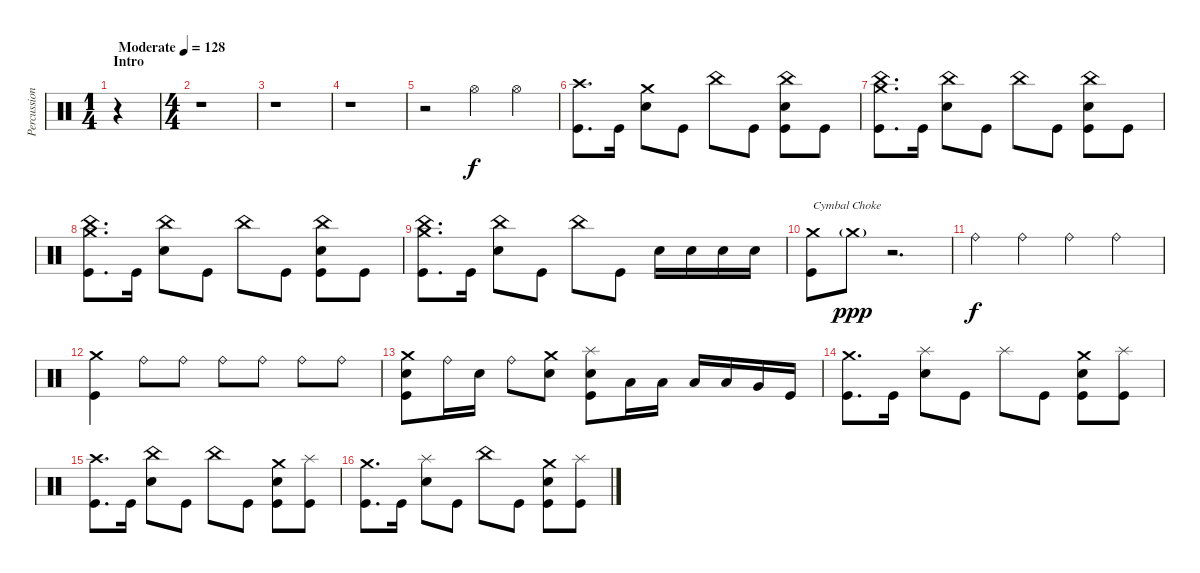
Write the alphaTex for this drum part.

\track ("Percussion" "Percussion") {instrument percussion}
\staff {score}
\articulation defaults
\ts (1 4)
\section ("" "Intro")
\tempo (128 "Moderate")
\clef neutral
\ks c
r.4{dy f} |
\ts (4 4)
r.1 |
r.1 |
r.1 |
r.2 "Hi-Hat (open)".4 "Hi-Hat (open)".4 |
("Crash high (hit)" "Kick (hit)").8{d} "Kick (hit)".16 ("Crash medium (hit)" "Electric Snare (hit)").8 "Kick (hit)".8 "China (hit)".8 "Kick (hit)".8 ("China (hit)" "Electric Snare (hit)" "Kick (hit)").8 "Kick (hit)".8 |
("Crash medium (hit)" "China (hit)" "Kick (hit)").8{d} "Kick (hit)".16 ("China (hit)" "Electric Snare (hit)").8 "Kick (hit)".8 "China (hit)".8 "Kick (hit)".8 ("China (hit)" "Electric Snare (hit)" "Kick (hit)").8 "Kick (hit)".8 |
("Crash medium (hit)" "China (hit)" "Kick (hit)").8{d} "Kick (hit)".16 ("China (hit)" "Electric Snare (hit)").8 "Kick (hit)".8 "China (hit)".8 "Kick (hit)".8 ("China (hit)" "Electric Snare (hit)" "Kick (hit)").8 "Kick (hit)".8 |
("Crash medium (hit)" "China (hit)" "Kick (hit)").8{d} "Kick (hit)".16 ("China (hit)" "Electric Snare (hit)").8 "Kick (hit)".8 "China (hit)".8 "Kick (hit)".8 "Electric Snare (hit)".16 "Electric Snare (hit)".16 "Electric Snare (hit)".16 "Electric Snare (hit)".16 |
("Crash medium (hit)" "Kick (hit)").8{txt "Cymbal Choke"} "Crash medium (hit)"{g}.8{dy ppp volume 0} r.2{d} |
"Ride (bell)".4{dy f volume 16} "Ride (bell)".4 "Ride (bell)".4 "Ride (bell)".4 |
("Crash medium (hit)" "Kick (hit)").4 "Ride (bell)".8 "Ride (bell)".8 "Ride (bell)".8 "Ride (bell)".8 "Ride (bell)".8 "Ride (bell)".8 |
("Crash medium (hit)" "Electric Snare (hit)" "Kick (hit)").8 "Ride (bell)".16 "Electric Snare (hit)".16 "Ride (bell)".8 ("Crash medium (hit)" "Electric Snare (hit)").8 ("Splash (hit)" "Electric Snare (hit)" "Kick (hit)").8 "Low Floor Tom (hit)".16 "Low Floor Tom (hit)".16 "Low Tom (hit)".16 "Low Tom (hit)".16 "Very Low Tom (hit)".16 "Kick (hit)".16 |
("Crash medium (hit)" "Kick (hit)").8{d} "Kick (hit)".16 ("Splash (hit)" "Electric Snare (hit)").8 "Kick (hit)".8 "Splash (hit)".8 "Kick (hit)".8 ("Crash medium (hit)" "Electric Snare (hit)" "Kick (hit)").8 ("Splash (hit)" "Kick (hit)").8 |
("Crash high (hit)" "Kick (hit)").8{d} "Kick (hit)".16 ("China (hit)" "Electric Snare (hit)").8 "Kick (hit)".8 "China (hit)".8 "Kick (hit)".8 ("Crash medium (hit)" "Electric Snare (hit)" "Kick (hit)").8 ("Splash (hit)" "Kick (hit)").8 |
("Crash medium (hit)" "Kick (hit)").8{d} "Kick (hit)".16 ("Splash (hit)" "Electric Snare (hit)").8 "Kick (hit)".8 "China (hit)".8 "Kick (hit)".8 ("Crash medium (hit)" "Electric Snare (hit)" "Kick (hit)").8 ("Splash (hit)" "Kick (hit)").8
